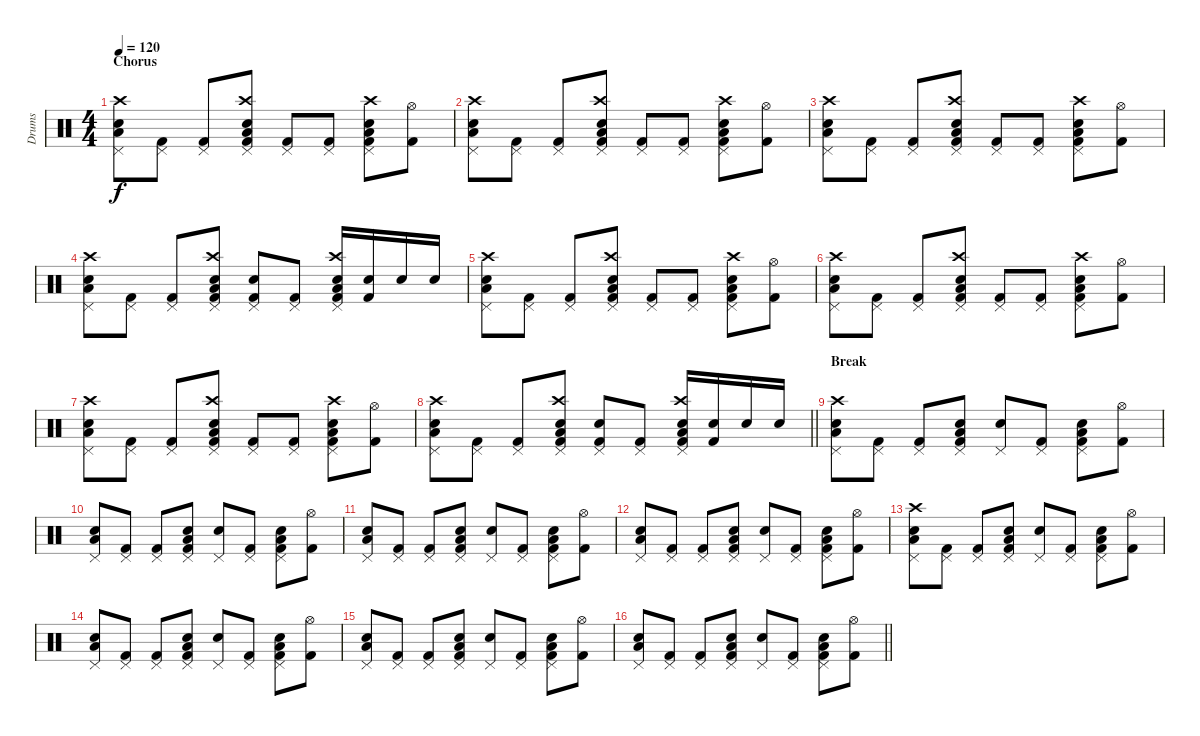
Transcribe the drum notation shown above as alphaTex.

\track ("Drums" "Drums") {instrument percussion}
\staff {score}
\articulation defaults
\ts (4 4)
\section ("" "Chorus")
\tempo 120
\clef neutral
\ks c
("Electric Snare (hit)" "Low Tom (hit)" "Pedal Hi-Hat (hit)" "Crash high (hit)").8{dy f} ("Kick (hit) 2" "Pedal Hi-Hat (hit)").8 ("Kick (hit) 2" "Pedal Hi-Hat (hit)").8 ("Kick (hit) 2" "Electric Snare (hit)" "Low Tom (hit)" "Pedal Hi-Hat (hit)" "Crash high (hit)").8 ("Kick (hit) 2" "Pedal Hi-Hat (hit)").8 ("Kick (hit) 2" "Pedal Hi-Hat (hit)").8 ("Kick (hit) 2" "Electric Snare (hit)" "Low Tom (hit)" "Pedal Hi-Hat (hit)" "Crash high (hit)").8 ("Kick (hit) 2" "Hi-Hat (open)").8 |
("Electric Snare (hit)" "Low Tom (hit)" "Pedal Hi-Hat (hit)" "Crash high (hit)").8 ("Kick (hit) 2" "Pedal Hi-Hat (hit)").8 ("Kick (hit) 2" "Pedal Hi-Hat (hit)").8 ("Kick (hit) 2" "Electric Snare (hit)" "Low Tom (hit)" "Pedal Hi-Hat (hit)" "Crash high (hit)").8 ("Kick (hit) 2" "Pedal Hi-Hat (hit)").8 ("Kick (hit) 2" "Pedal Hi-Hat (hit)").8 ("Kick (hit) 2" "Electric Snare (hit)" "Low Tom (hit)" "Pedal Hi-Hat (hit)" "Crash high (hit)").8 ("Kick (hit) 2" "Hi-Hat (open)").8 |
("Electric Snare (hit)" "Low Tom (hit)" "Pedal Hi-Hat (hit)" "Crash high (hit)").8 ("Kick (hit) 2" "Pedal Hi-Hat (hit)").8 ("Kick (hit) 2" "Pedal Hi-Hat (hit)").8 ("Kick (hit) 2" "Electric Snare (hit)" "Low Tom (hit)" "Pedal Hi-Hat (hit)" "Crash high (hit)").8 ("Kick (hit) 2" "Pedal Hi-Hat (hit)").8 ("Kick (hit) 2" "Pedal Hi-Hat (hit)").8 ("Kick (hit) 2" "Electric Snare (hit)" "Low Tom (hit)" "Pedal Hi-Hat (hit)" "Crash high (hit)").8 ("Kick (hit) 2" "Hi-Hat (open)").8 |
("Electric Snare (hit)" "Low Tom (hit)" "Pedal Hi-Hat (hit)" "Crash high (hit)").8 ("Kick (hit) 2" "Pedal Hi-Hat (hit)").8 ("Kick (hit) 2" "Pedal Hi-Hat (hit)").8 ("Kick (hit) 2" "Electric Snare (hit)" "Low Tom (hit)" "Pedal Hi-Hat (hit)" "Crash high (hit)").8 ("Kick (hit) 2" "Pedal Hi-Hat (hit)" "Electric Snare (hit)").8 ("Kick (hit) 2" "Pedal Hi-Hat (hit)").8 ("Kick (hit) 2" "Electric Snare (hit)" "Low Tom (hit)" "Pedal Hi-Hat (hit)" "Crash high (hit)").16 ("Kick (hit) 2" "Electric Snare (hit)").16 "Electric Snare (hit)".16 "Electric Snare (hit)".16 |
("Electric Snare (hit)" "Low Tom (hit)" "Pedal Hi-Hat (hit)" "Crash high (hit)").8 ("Kick (hit) 2" "Pedal Hi-Hat (hit)").8 ("Kick (hit) 2" "Pedal Hi-Hat (hit)").8 ("Kick (hit) 2" "Electric Snare (hit)" "Low Tom (hit)" "Pedal Hi-Hat (hit)" "Crash high (hit)").8 ("Kick (hit) 2" "Pedal Hi-Hat (hit)").8 ("Kick (hit) 2" "Pedal Hi-Hat (hit)").8 ("Kick (hit) 2" "Electric Snare (hit)" "Low Tom (hit)" "Pedal Hi-Hat (hit)" "Crash high (hit)").8 ("Kick (hit) 2" "Hi-Hat (open)").8 |
("Electric Snare (hit)" "Low Tom (hit)" "Pedal Hi-Hat (hit)" "Crash high (hit)").8 ("Kick (hit) 2" "Pedal Hi-Hat (hit)").8 ("Kick (hit) 2" "Pedal Hi-Hat (hit)").8 ("Kick (hit) 2" "Electric Snare (hit)" "Low Tom (hit)" "Pedal Hi-Hat (hit)" "Crash high (hit)").8 ("Kick (hit) 2" "Pedal Hi-Hat (hit)").8 ("Kick (hit) 2" "Pedal Hi-Hat (hit)").8 ("Kick (hit) 2" "Electric Snare (hit)" "Low Tom (hit)" "Pedal Hi-Hat (hit)" "Crash high (hit)").8 ("Kick (hit) 2" "Hi-Hat (open)").8 |
("Electric Snare (hit)" "Low Tom (hit)" "Pedal Hi-Hat (hit)" "Crash high (hit)").8 ("Kick (hit) 2" "Pedal Hi-Hat (hit)").8 ("Kick (hit) 2" "Pedal Hi-Hat (hit)").8 ("Kick (hit) 2" "Electric Snare (hit)" "Low Tom (hit)" "Pedal Hi-Hat (hit)" "Crash high (hit)").8 ("Kick (hit) 2" "Pedal Hi-Hat (hit)").8 ("Kick (hit) 2" "Pedal Hi-Hat (hit)").8 ("Kick (hit) 2" "Electric Snare (hit)" "Low Tom (hit)" "Pedal Hi-Hat (hit)" "Crash high (hit)").8 ("Kick (hit) 2" "Hi-Hat (open)").8 |
\barLineRight lightlight
("Electric Snare (hit)" "Low Tom (hit)" "Pedal Hi-Hat (hit)" "Crash high (hit)").8 ("Kick (hit) 2" "Pedal Hi-Hat (hit)").8 ("Kick (hit) 2" "Pedal Hi-Hat (hit)").8 ("Kick (hit) 2" "Electric Snare (hit)" "Low Tom (hit)" "Pedal Hi-Hat (hit)" "Crash high (hit)").8 ("Kick (hit) 2" "Pedal Hi-Hat (hit)" "Electric Snare (hit)").8 ("Kick (hit) 2" "Pedal Hi-Hat (hit)").8 ("Kick (hit) 2" "Electric Snare (hit)" "Low Tom (hit)" "Pedal Hi-Hat (hit)" "Crash high (hit)").16 ("Kick (hit) 2" "Electric Snare (hit)").16 "Electric Snare (hit)".16 "Electric Snare (hit)".16 |
\section ("" "Break")
("Electric Snare (hit)" "Low Tom (hit)" "Pedal Hi-Hat (hit)" "Crash high (hit)").8 ("Kick (hit) 2" "Pedal Hi-Hat (hit)").8 ("Kick (hit) 2" "Pedal Hi-Hat (hit)").8 ("Kick (hit) 2" "Electric Snare (hit)" "Low Tom (hit)" "Pedal Hi-Hat (hit)").8 ("Electric Snare (hit)" "Pedal Hi-Hat (hit)").8 ("Kick (hit) 2" "Pedal Hi-Hat (hit)").8 ("Kick (hit) 2" "Electric Snare (hit)" "Low Tom (hit)" "Pedal Hi-Hat (hit)").8 ("Kick (hit) 2" "Hi-Hat (open)").8 |
("Electric Snare (hit)" "Low Tom (hit)" "Pedal Hi-Hat (hit)").8 ("Kick (hit) 2" "Pedal Hi-Hat (hit)").8 ("Kick (hit) 2" "Pedal Hi-Hat (hit)").8 ("Kick (hit) 2" "Electric Snare (hit)" "Low Tom (hit)" "Pedal Hi-Hat (hit)").8 ("Electric Snare (hit)" "Pedal Hi-Hat (hit)").8 ("Kick (hit) 2" "Pedal Hi-Hat (hit)").8 ("Kick (hit) 2" "Electric Snare (hit)" "Low Tom (hit)" "Pedal Hi-Hat (hit)").8 ("Kick (hit) 2" "Hi-Hat (open)").8 |
("Electric Snare (hit)" "Low Tom (hit)" "Pedal Hi-Hat (hit)").8 ("Kick (hit) 2" "Pedal Hi-Hat (hit)").8 ("Kick (hit) 2" "Pedal Hi-Hat (hit)").8 ("Kick (hit) 2" "Electric Snare (hit)" "Low Tom (hit)" "Pedal Hi-Hat (hit)").8 ("Electric Snare (hit)" "Pedal Hi-Hat (hit)").8 ("Kick (hit) 2" "Pedal Hi-Hat (hit)").8 ("Kick (hit) 2" "Electric Snare (hit)" "Low Tom (hit)" "Pedal Hi-Hat (hit)").8 ("Kick (hit) 2" "Hi-Hat (open)").8 |
("Electric Snare (hit)" "Low Tom (hit)" "Pedal Hi-Hat (hit)").8 ("Kick (hit) 2" "Pedal Hi-Hat (hit)").8 ("Kick (hit) 2" "Pedal Hi-Hat (hit)").8 ("Kick (hit) 2" "Electric Snare (hit)" "Low Tom (hit)" "Pedal Hi-Hat (hit)").8 ("Electric Snare (hit)" "Pedal Hi-Hat (hit)").8 ("Kick (hit) 2" "Pedal Hi-Hat (hit)").8 ("Kick (hit) 2" "Electric Snare (hit)" "Low Tom (hit)" "Pedal Hi-Hat (hit)").8 ("Kick (hit) 2" "Hi-Hat (open)").8 |
("Electric Snare (hit)" "Low Tom (hit)" "Pedal Hi-Hat (hit)" "Crash high (hit)").8 ("Kick (hit) 2" "Pedal Hi-Hat (hit)").8 ("Kick (hit) 2" "Pedal Hi-Hat (hit)").8 ("Kick (hit) 2" "Electric Snare (hit)" "Low Tom (hit)" "Pedal Hi-Hat (hit)").8 ("Electric Snare (hit)" "Pedal Hi-Hat (hit)").8 ("Kick (hit) 2" "Pedal Hi-Hat (hit)").8 ("Kick (hit) 2" "Electric Snare (hit)" "Low Tom (hit)" "Pedal Hi-Hat (hit)").8 ("Kick (hit) 2" "Hi-Hat (open)").8 |
("Electric Snare (hit)" "Low Tom (hit)" "Pedal Hi-Hat (hit)").8 ("Kick (hit) 2" "Pedal Hi-Hat (hit)").8 ("Kick (hit) 2" "Pedal Hi-Hat (hit)").8 ("Kick (hit) 2" "Electric Snare (hit)" "Low Tom (hit)" "Pedal Hi-Hat (hit)").8 ("Electric Snare (hit)" "Pedal Hi-Hat (hit)").8 ("Kick (hit) 2" "Pedal Hi-Hat (hit)").8 ("Kick (hit) 2" "Electric Snare (hit)" "Low Tom (hit)" "Pedal Hi-Hat (hit)").8 ("Kick (hit) 2" "Hi-Hat (open)").8 |
("Electric Snare (hit)" "Low Tom (hit)" "Pedal Hi-Hat (hit)").8 ("Kick (hit) 2" "Pedal Hi-Hat (hit)").8 ("Kick (hit) 2" "Pedal Hi-Hat (hit)").8 ("Kick (hit) 2" "Electric Snare (hit)" "Low Tom (hit)" "Pedal Hi-Hat (hit)").8 ("Electric Snare (hit)" "Pedal Hi-Hat (hit)").8 ("Kick (hit) 2" "Pedal Hi-Hat (hit)").8 ("Kick (hit) 2" "Electric Snare (hit)" "Low Tom (hit)" "Pedal Hi-Hat (hit)").8 ("Kick (hit) 2" "Hi-Hat (open)").8 |
\barLineRight lightlight
("Electric Snare (hit)" "Low Tom (hit)" "Pedal Hi-Hat (hit)").8 ("Kick (hit) 2" "Pedal Hi-Hat (hit)").8 ("Kick (hit) 2" "Pedal Hi-Hat (hit)").8 ("Kick (hit) 2" "Electric Snare (hit)" "Low Tom (hit)" "Pedal Hi-Hat (hit)").8 ("Electric Snare (hit)" "Pedal Hi-Hat (hit)").8 ("Kick (hit) 2" "Pedal Hi-Hat (hit)").8 ("Kick (hit) 2" "Electric Snare (hit)" "Low Tom (hit)" "Pedal Hi-Hat (hit)").8 ("Kick (hit) 2" "Hi-Hat (open)").8
